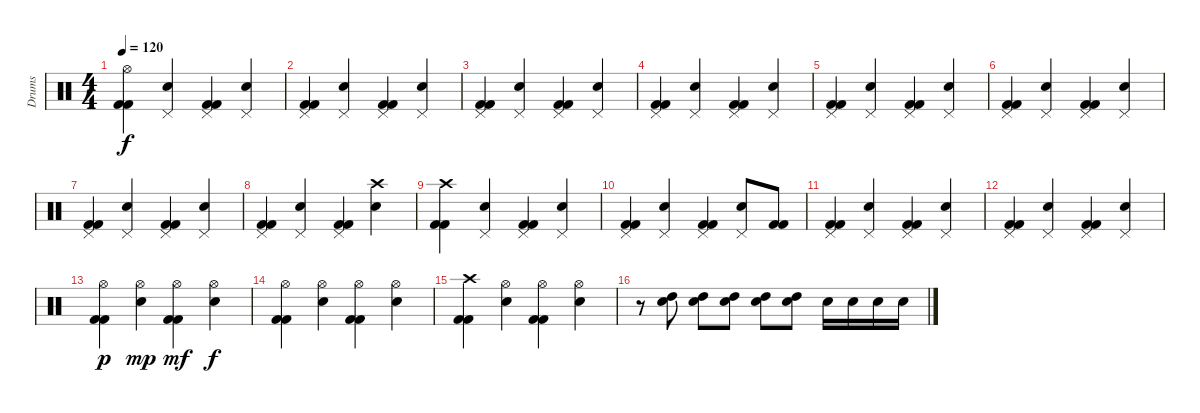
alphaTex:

\track ("Drums" "Drums") {instrument percussion}
\staff {score}
\articulation defaults
\ts (4 4)
\tempo 120
\clef neutral
\ks c
("Hi-Hat (open)" "Kick (hit) 2" "Kick (hit) 2").4{dy f} ("Pedal Hi-Hat (hit)" "Snare (hit) 2").4 ("Pedal Hi-Hat (hit)" "Kick (hit) 2" "Kick (hit) 2").4 ("Pedal Hi-Hat (hit)" "Snare (hit) 2").4 |
("Pedal Hi-Hat (hit)" "Kick (hit) 2" "Kick (hit) 2").4 ("Pedal Hi-Hat (hit)" "Snare (hit) 2").4 ("Pedal Hi-Hat (hit)" "Kick (hit) 2" "Kick (hit) 2").4 ("Pedal Hi-Hat (hit)" "Snare (hit) 2").4 |
("Pedal Hi-Hat (hit)" "Kick (hit) 2" "Kick (hit) 2").4 ("Pedal Hi-Hat (hit)" "Snare (hit) 2").4 ("Pedal Hi-Hat (hit)" "Kick (hit) 2" "Kick (hit) 2").4 ("Pedal Hi-Hat (hit)" "Snare (hit) 2").4 |
("Pedal Hi-Hat (hit)" "Kick (hit) 2" "Kick (hit) 2").4 ("Pedal Hi-Hat (hit)" "Snare (hit) 2").4 ("Pedal Hi-Hat (hit)" "Kick (hit) 2" "Kick (hit) 2").4 ("Pedal Hi-Hat (hit)" "Snare (hit) 2").4 |
("Pedal Hi-Hat (hit)" "Kick (hit) 2" "Kick (hit) 2").4 ("Pedal Hi-Hat (hit)" "Snare (hit) 2").4 ("Pedal Hi-Hat (hit)" "Kick (hit) 2" "Kick (hit) 2").4 ("Pedal Hi-Hat (hit)" "Snare (hit) 2").4 |
("Pedal Hi-Hat (hit)" "Kick (hit) 2" "Kick (hit) 2").4 ("Pedal Hi-Hat (hit)" "Snare (hit) 2").4 ("Pedal Hi-Hat (hit)" "Kick (hit) 2" "Kick (hit) 2").4 ("Pedal Hi-Hat (hit)" "Snare (hit) 2").4 |
("Pedal Hi-Hat (hit)" "Kick (hit) 2" "Kick (hit) 2").4 ("Pedal Hi-Hat (hit)" "Snare (hit) 2").4 ("Pedal Hi-Hat (hit)" "Kick (hit) 2" "Kick (hit) 2").4 ("Pedal Hi-Hat (hit)" "Snare (hit) 2").4 |
("Pedal Hi-Hat (hit)" "Kick (hit) 2" "Kick (hit) 2").4 ("Pedal Hi-Hat (hit)" "Snare (hit) 2").4 ("Pedal Hi-Hat (hit)" "Kick (hit) 2" "Kick (hit) 2").4 ("Crash high (hit)" "Snare (hit) 2").4 |
("Crash high (hit)" "Kick (hit) 2" "Kick (hit) 2").4 ("Pedal Hi-Hat (hit)" "Snare (hit) 2").4 ("Pedal Hi-Hat (hit)" "Kick (hit) 2" "Kick (hit) 2").4 ("Pedal Hi-Hat (hit)" "Snare (hit) 2").4 |
("Pedal Hi-Hat (hit)" "Kick (hit) 2" "Kick (hit) 2").4 ("Pedal Hi-Hat (hit)" "Snare (hit) 2").4 ("Pedal Hi-Hat (hit)" "Kick (hit) 2" "Kick (hit) 2").4 ("Pedal Hi-Hat (hit)" "Snare (hit) 2").8 ("Kick (hit) 2" "Kick (hit) 2").8 |
("Pedal Hi-Hat (hit)" "Kick (hit) 2" "Kick (hit) 2").4 ("Pedal Hi-Hat (hit)" "Snare (hit) 2").4 ("Pedal Hi-Hat (hit)" "Kick (hit) 2" "Kick (hit) 2").4 ("Pedal Hi-Hat (hit)" "Snare (hit) 2").4 |
("Pedal Hi-Hat (hit)" "Kick (hit) 2" "Kick (hit) 2").4 ("Pedal Hi-Hat (hit)" "Snare (hit) 2").4 ("Pedal Hi-Hat (hit)" "Kick (hit) 2" "Kick (hit) 2").4 ("Pedal Hi-Hat (hit)" "Snare (hit) 2").4 |
("Hi-Hat (open)" "Kick (hit) 2" "Kick (hit) 2").4{dy p} ("Hi-Hat (open)" "Snare (hit) 2").4{dy mp} ("Hi-Hat (open)" "Kick (hit) 2" "Kick (hit) 2").4{dy mf} ("Hi-Hat (open)" "Snare (hit) 2").4{dy f} |
("Hi-Hat (open)" "Kick (hit) 2" "Kick (hit) 2").4 ("Hi-Hat (open)" "Snare (hit) 2").4 ("Hi-Hat (open)" "Kick (hit) 2" "Kick (hit) 2").4 ("Hi-Hat (open)" "Snare (hit) 2").4 |
("Crash high (hit)" "Kick (hit) 2" "Kick (hit) 2").4 ("Hi-Hat (open)" "Snare (hit) 2").4 ("Hi-Hat (open)" "Kick (hit) 2" "Kick (hit) 2").4 ("Hi-Hat (open)" "Snare (hit) 2").4 |
r.8 ("High Tom (hit)" "Snare (hit) 2").8 ("High Tom (hit)" "Snare (hit) 2").8 ("High Tom (hit)" "Snare (hit) 2").8 ("High Tom (hit)" "Snare (hit) 2").8 ("High Tom (hit)" "Snare (hit) 2").8 "Snare (hit) 2".16 "Snare (hit) 2".16 "Snare (hit) 2".16 "Snare (hit) 2".16
